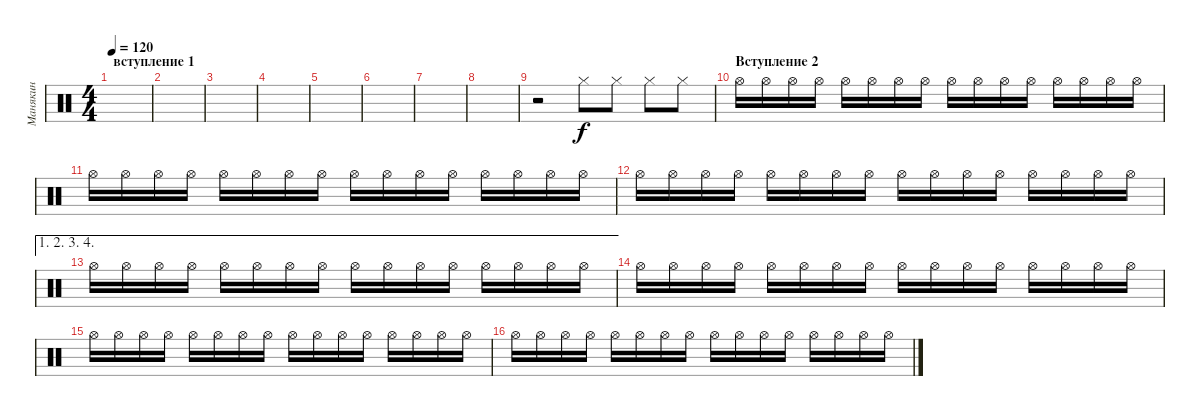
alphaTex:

\track ("Манякин" "Манякин") {instrument percussion}
\staff {score}
\articulation defaults
\ts (4 4)
\section ("" "вступление 1")
\tempo 120
\clef neutral
\ks c
|
|
|
|
|
|
|
|
r.2 "Hi-Hat (closed)".8 "Hi-Hat (closed)".8 "Hi-Hat (closed)".8 "Hi-Hat (closed)".8 |
\section ("" "Вступление 2 ")
"Hi-Hat (open)".16 "Hi-Hat (open)".16 "Hi-Hat (open)".16 "Hi-Hat (open)".16 "Hi-Hat (open)".16 "Hi-Hat (open)".16 "Hi-Hat (open)".16 "Hi-Hat (open)".16 "Hi-Hat (open)".16 "Hi-Hat (open)".16 "Hi-Hat (open)".16 "Hi-Hat (open)".16 "Hi-Hat (open)".16 "Hi-Hat (open)".16 "Hi-Hat (open)".16 "Hi-Hat (open)".16 |
"Hi-Hat (open)".16 "Hi-Hat (open)".16 "Hi-Hat (open)".16 "Hi-Hat (open)".16 "Hi-Hat (open)".16 "Hi-Hat (open)".16 "Hi-Hat (open)".16 "Hi-Hat (open)".16 "Hi-Hat (open)".16 "Hi-Hat (open)".16 "Hi-Hat (open)".16 "Hi-Hat (open)".16 "Hi-Hat (open)".16 "Hi-Hat (open)".16 "Hi-Hat (open)".16 "Hi-Hat (open)".16 |
"Hi-Hat (open)".16 "Hi-Hat (open)".16 "Hi-Hat (open)".16 "Hi-Hat (open)".16 "Hi-Hat (open)".16 "Hi-Hat (open)".16 "Hi-Hat (open)".16 "Hi-Hat (open)".16 "Hi-Hat (open)".16 "Hi-Hat (open)".16 "Hi-Hat (open)".16 "Hi-Hat (open)".16 "Hi-Hat (open)".16 "Hi-Hat (open)".16 "Hi-Hat (open)".16 "Hi-Hat (open)".16 |
\ae (1 2 3 4)
"Hi-Hat (open)".16 "Hi-Hat (open)".16 "Hi-Hat (open)".16 "Hi-Hat (open)".16 "Hi-Hat (open)".16 "Hi-Hat (open)".16 "Hi-Hat (open)".16 "Hi-Hat (open)".16 "Hi-Hat (open)".16 "Hi-Hat (open)".16 "Hi-Hat (open)".16 "Hi-Hat (open)".16 "Hi-Hat (open)".16 "Hi-Hat (open)".16 "Hi-Hat (open)".16 "Hi-Hat (open)".16 |
"Hi-Hat (open)".16 "Hi-Hat (open)".16 "Hi-Hat (open)".16 "Hi-Hat (open)".16 "Hi-Hat (open)".16 "Hi-Hat (open)".16 "Hi-Hat (open)".16 "Hi-Hat (open)".16 "Hi-Hat (open)".16 "Hi-Hat (open)".16 "Hi-Hat (open)".16 "Hi-Hat (open)".16 "Hi-Hat (open)".16 "Hi-Hat (open)".16 "Hi-Hat (open)".16 "Hi-Hat (open)".16 |
"Hi-Hat (open)".16 "Hi-Hat (open)".16 "Hi-Hat (open)".16 "Hi-Hat (open)".16 "Hi-Hat (open)".16 "Hi-Hat (open)".16 "Hi-Hat (open)".16 "Hi-Hat (open)".16 "Hi-Hat (open)".16 "Hi-Hat (open)".16 "Hi-Hat (open)".16 "Hi-Hat (open)".16 "Hi-Hat (open)".16 "Hi-Hat (open)".16 "Hi-Hat (open)".16 "Hi-Hat (open)".16 |
"Hi-Hat (open)".16 "Hi-Hat (open)".16 "Hi-Hat (open)".16 "Hi-Hat (open)".16 "Hi-Hat (open)".16 "Hi-Hat (open)".16 "Hi-Hat (open)".16 "Hi-Hat (open)".16 "Hi-Hat (open)".16 "Hi-Hat (open)".16 "Hi-Hat (open)".16 "Hi-Hat (open)".16 "Hi-Hat (open)".16 "Hi-Hat (open)".16 "Hi-Hat (open)".16 "Hi-Hat (open)".16
